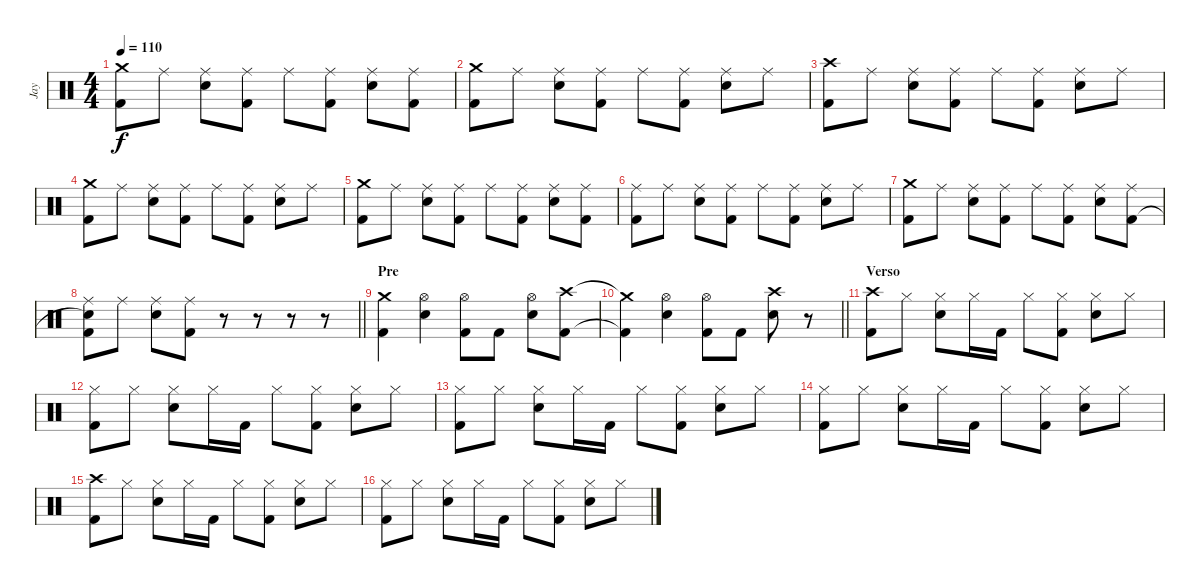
\track ("Jay" "Jay") {instrument percussion}
\staff {score}
\articulation defaults
\ts (4 4)
\tempo 110
\clef neutral
\ks c
("Crash medium (hit)" "Kick (hit) 2").8{dy f} "Ride (middle)".8 ("Ride (middle)" "Electric Snare (hit)").8 ("Ride (middle)" "Kick (hit) 2").8 "Ride (middle)".8 ("Ride (middle)" "Kick (hit) 2").8 ("Ride (middle)" "Electric Snare (hit)").8 ("Ride (middle)" "Kick (hit) 2").8 |
("Crash medium (hit)" "Kick (hit) 2").8 "Ride (middle)".8 ("Ride (middle)" "Electric Snare (hit)").8 ("Ride (middle)" "Kick (hit) 2").8 "Ride (middle)".8 ("Ride (middle)" "Kick (hit) 2").8 ("Ride (middle)" "Electric Snare (hit)").8 "Ride (middle)".8 |
("Crash high (hit)" "Kick (hit) 2").8 "Ride (middle)".8 ("Ride (middle)" "Electric Snare (hit)").8 ("Ride (middle)" "Kick (hit) 2").8 "Ride (middle)".8 ("Ride (middle)" "Kick (hit) 2").8 ("Ride (middle)" "Electric Snare (hit)").8 "Ride (middle)".8 |
("Crash medium (hit)" "Kick (hit) 2").8 "Ride (middle)".8 ("Ride (middle)" "Electric Snare (hit)").8 ("Ride (middle)" "Kick (hit) 2").8 "Ride (middle)".8 ("Ride (middle)" "Kick (hit) 2").8 ("Ride (middle)" "Electric Snare (hit)").8 "Ride (middle)".8 |
("Crash medium (hit)" "Kick (hit) 2").8 "Ride (middle)".8 ("Ride (middle)" "Electric Snare (hit)").8 ("Ride (middle)" "Kick (hit) 2").8 "Ride (middle)".8 ("Ride (middle)" "Kick (hit) 2").8 ("Ride (middle)" "Electric Snare (hit)").8 ("Ride (middle)" "Kick (hit) 2").8 |
("Ride (middle)" "Kick (hit) 2").8 "Ride (middle)".8 ("Ride (middle)" "Electric Snare (hit)").8 ("Ride (middle)" "Kick (hit) 2").8 "Ride (middle)".8 ("Ride (middle)" "Kick (hit) 2").8 ("Ride (middle)" "Electric Snare (hit)").8 "Ride (middle)".8 |
("Crash medium (hit)" "Kick (hit) 2").8 "Ride (middle)".8 ("Ride (middle)" "Electric Snare (hit)").8 ("Ride (middle)" "Kick (hit) 2").8 "Ride (middle)".8 ("Ride (middle)" "Kick (hit) 2").8 ("Ride (middle)" "Electric Snare (hit)").8 ("Ride (middle)" "Kick (hit) 2").8 |
\barLineRight lightlight
("Ride (middle)" "Snare (hit)"{t} "Kick (hit) 2").8 "Ride (middle)".8 ("Ride (middle)" "Electric Snare (hit)").8 ("Ride (middle)" "Kick (hit) 2").8 r.8 r.8 r.8 r.8 |
\section ("" "Pre")
("Crash medium (hit)" "Kick (hit) 2").4 ("Hi-Hat (open)" "Electric Snare (hit)").4 ("Hi-Hat (open)" "Kick (hit) 2").8 "Kick (hit) 2".8 ("Hi-Hat (open)" "Electric Snare (hit)").8 ("Crash high (hit)" "Kick (hit) 2").8 |
\barLineRight lightlight
("Crash medium (hit)"{t} "Kick (hit) 2"{t}).4 ("Hi-Hat (open)" "Electric Snare (hit)").4 ("Hi-Hat (open)" "Kick (hit) 2").8 "Kick (hit) 2".8 ("Crash high (hit)" "Electric Snare (hit)").8 r.8 |
\section ("" "Verso")
("Crash high (hit)" "Kick (hit) 2").8 "Hi-Hat (closed)".8 ("Hi-Hat (closed)" "Electric Snare (hit)").8 "Hi-Hat (closed)".16 "Kick (hit) 2".16 "Hi-Hat (closed)".8 ("Hi-Hat (closed)" "Kick (hit) 2").8 ("Hi-Hat (closed)" "Electric Snare (hit)").8 "Hi-Hat (closed)".8 |
("Hi-Hat (closed)" "Kick (hit) 2").8 "Hi-Hat (closed)".8 ("Hi-Hat (closed)" "Electric Snare (hit)").8 "Hi-Hat (closed)".16 "Kick (hit) 2".16 "Hi-Hat (closed)".8 ("Hi-Hat (closed)" "Kick (hit) 2").8 ("Hi-Hat (closed)" "Electric Snare (hit)").8 "Hi-Hat (closed)".8 |
("Hi-Hat (closed)" "Kick (hit) 2").8 "Hi-Hat (closed)".8 ("Hi-Hat (closed)" "Electric Snare (hit)").8 "Hi-Hat (closed)".16 "Kick (hit) 2".16 "Hi-Hat (closed)".8 ("Hi-Hat (closed)" "Kick (hit) 2").8 ("Hi-Hat (closed)" "Electric Snare (hit)").8 "Hi-Hat (closed)".8 |
("Hi-Hat (closed)" "Kick (hit) 2").8 "Hi-Hat (closed)".8 ("Hi-Hat (closed)" "Electric Snare (hit)").8 "Hi-Hat (closed)".16 "Kick (hit) 2".16 "Hi-Hat (closed)".8 ("Hi-Hat (closed)" "Kick (hit) 2").8 ("Hi-Hat (closed)" "Electric Snare (hit)").8 "Hi-Hat (closed)".8 |
("Crash high (hit)" "Kick (hit) 2").8 "Hi-Hat (closed)".8 ("Hi-Hat (closed)" "Electric Snare (hit)").8 "Hi-Hat (closed)".16 "Kick (hit) 2".16 "Hi-Hat (closed)".8 ("Hi-Hat (closed)" "Kick (hit) 2").8 ("Hi-Hat (closed)" "Electric Snare (hit)").8 "Hi-Hat (closed)".8 |
("Hi-Hat (closed)" "Kick (hit) 2").8 "Hi-Hat (closed)".8 ("Hi-Hat (closed)" "Electric Snare (hit)").8 "Hi-Hat (closed)".16 "Kick (hit) 2".16 "Hi-Hat (closed)".8 ("Hi-Hat (closed)" "Kick (hit) 2").8 ("Hi-Hat (closed)" "Electric Snare (hit)").8 "Hi-Hat (closed)".8
